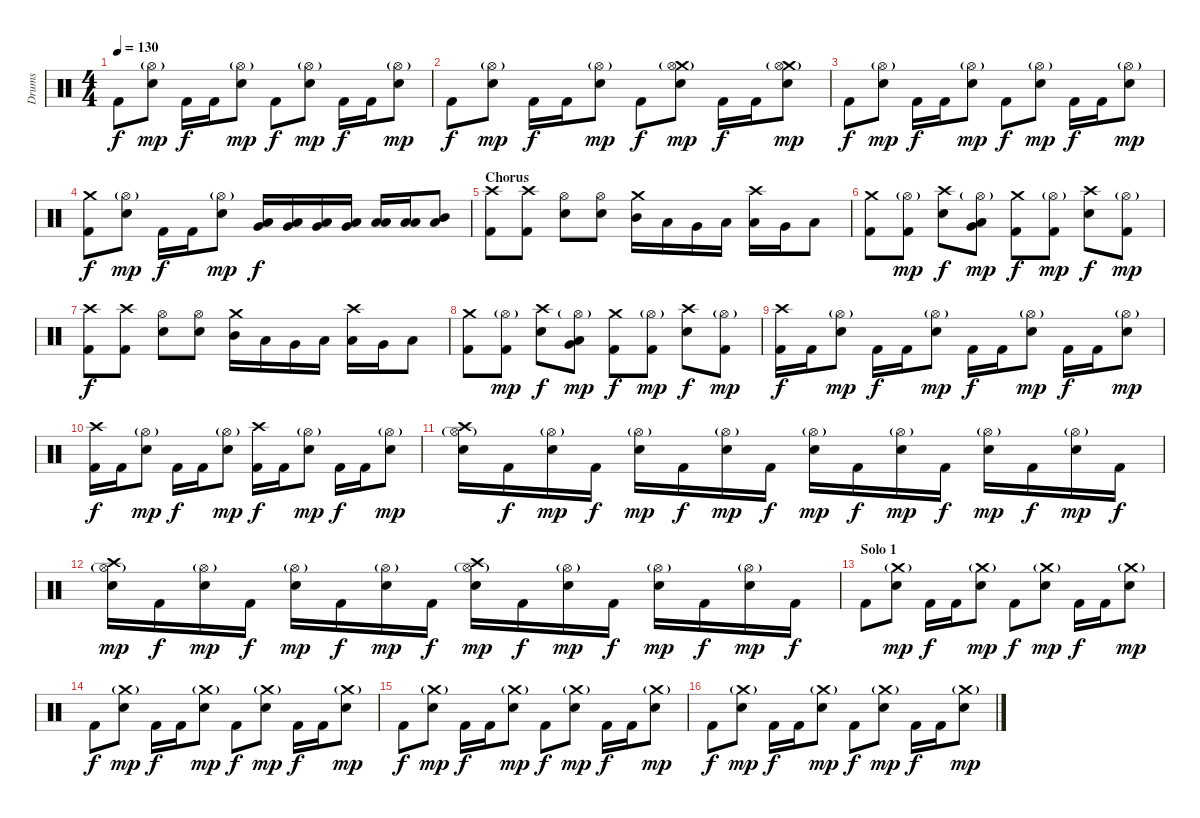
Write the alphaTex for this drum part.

\track ("Drums" "Drums") {instrument percussion}
\staff {score}
\articulation defaults
\ts (4 4)
\tempo 130
\clef neutral
\ks c "Kick (hit) 2".8{dy f}
("Hi-Hat (open)"{g} "Electric Snare (hit)").8{dy mp} "Kick (hit) 2".16{dy f} "Kick (hit) 2".16 ("Hi-Hat (open)"{g} "Electric Snare (hit)").8{dy mp} "Kick (hit) 2".8{dy f} ("Hi-Hat (open)"{g} "Electric Snare (hit)").8{dy mp} "Kick (hit) 2".16{dy f} "Kick (hit) 2".16 ("Hi-Hat (open)"{g} "Electric Snare (hit)").8{dy mp} |
"Kick (hit) 2".8{dy f} ("Hi-Hat (open)"{g} "Electric Snare (hit)").8{dy mp} "Kick (hit) 2".16{dy f} "Kick (hit) 2".16 ("Hi-Hat (open)"{g} "Electric Snare (hit)").8{dy mp} "Kick (hit) 2".8{dy f} ("Crash medium (hit)"{g} "Hi-Hat (open)"{g} "Electric Snare (hit)").8{dy mp} "Kick (hit) 2".16{dy f} "Kick (hit) 2".16 ("Crash medium (hit)"{g} "Hi-Hat (open)"{g} "Electric Snare (hit)").8{dy mp} |
"Kick (hit) 2".8{dy f} ("Hi-Hat (open)"{g} "Electric Snare (hit)").8{dy mp} "Kick (hit) 2".16{dy f} "Kick (hit) 2".16 ("Hi-Hat (open)"{g} "Electric Snare (hit)").8{dy mp} "Kick (hit) 2".8{dy f} ("Hi-Hat (open)"{g} "Electric Snare (hit)").8{dy mp} "Kick (hit) 2".16{dy f} "Kick (hit) 2".16 ("Hi-Hat (open)"{g} "Electric Snare (hit)").8{dy mp} |
("Crash medium (hit)" "Kick (hit) 2").8{dy f} ("Hi-Hat (open)"{g} "Electric Snare (hit)").8{dy mp} "Kick (hit) 2".16{dy f} "Kick (hit) 2".16 ("Hi-Hat (open)"{g} "Electric Snare (hit)").8{dy mp} ("Very Low Tom (hit)" "Low Floor Tom (hit)").16{dy f} ("Very Low Tom (hit)" "Low Floor Tom (hit)").16 ("Very Low Tom (hit)" "Low Floor Tom (hit)").16 ("Very Low Tom (hit)" "Low Floor Tom (hit)").16 ("Low Tom (hit)" "Low Floor Tom (hit)").16 ("Low Tom (hit)" "Low Floor Tom (hit)").16 ("Mid Tom (hit)" "Low Floor Tom (hit)").8 |
\section ("" "Chorus")
("Crash high (hit)" "Kick (hit) 2").8 ("Crash high (hit)" "Kick (hit) 2").8 ("Hi-Hat (open)" "Electric Snare (hit)").8 ("Hi-Hat (open)" "Electric Snare (hit)").8 ("Crash medium (hit)" "Mid Tom (hit)").16 "Low Tom (hit)".16 "Very Low Tom (hit)".16 "Low Floor Tom (hit)".16 ("Crash high (hit)" "Low Tom (hit)").16 "Very Low Tom (hit)".16 "Low Floor Tom (hit)".8 |
("Crash medium (hit)" "Kick (hit) 2").8 ("Hi-Hat (open)"{g} "Kick (hit) 2").8{dy mp} ("Crash high (hit)" "Electric Snare (hit)").8{dy f} ("Hi-Hat (open)"{g} "Low Tom (hit)" "Very Low Tom (hit)").8{dy mp} ("Crash medium (hit)" "Kick (hit) 2").8{dy f} ("Hi-Hat (open)"{g} "Kick (hit) 2").8{dy mp} ("Crash high (hit)" "Electric Snare (hit)").8{dy f} ("Hi-Hat (open)"{g} "Kick (hit) 2").8{dy mp} |
("Crash high (hit)" "Kick (hit) 2").8{dy f} ("Crash high (hit)" "Kick (hit) 2").8 ("Hi-Hat (open)" "Electric Snare (hit)").8 ("Hi-Hat (open)" "Electric Snare (hit)").8 ("Crash medium (hit)" "Mid Tom (hit)").16 "Low Tom (hit)".16 "Very Low Tom (hit)".16 "Low Floor Tom (hit)".16 ("Crash high (hit)" "Low Tom (hit)").16 "Very Low Tom (hit)".16 "Low Floor Tom (hit)".8 |
("Crash medium (hit)" "Kick (hit) 2").8 ("Hi-Hat (open)"{g} "Kick (hit) 2").8{dy mp} ("Crash high (hit)" "Electric Snare (hit)").8{dy f} ("Hi-Hat (open)"{g} "Low Tom (hit)" "Very Low Tom (hit)").8{dy mp} ("Crash medium (hit)" "Kick (hit) 2").8{dy f} ("Hi-Hat (open)"{g} "Kick (hit) 2").8{dy mp} ("Crash high (hit)" "Electric Snare (hit)").8{dy f} ("Hi-Hat (open)"{g} "Kick (hit) 2").8{dy mp} |
("Crash high (hit)" "Kick (hit) 2").16{dy f} "Kick (hit) 2".16 ("Hi-Hat (open)"{g} "Electric Snare (hit)").8{dy mp} "Kick (hit) 2".16{dy f} "Kick (hit) 2".16 ("Hi-Hat (open)"{g} "Electric Snare (hit)").8{dy mp} "Kick (hit) 2".16{dy f} "Kick (hit) 2".16 ("Hi-Hat (open)"{g} "Electric Snare (hit)").8{dy mp} "Kick (hit) 2".16{dy f} "Kick (hit) 2".16 ("Hi-Hat (open)"{g} "Electric Snare (hit)").8{dy mp} |
("Crash high (hit)" "Kick (hit) 2").16{dy f} "Kick (hit) 2".16 ("Hi-Hat (open)"{g} "Electric Snare (hit)").8{dy mp} "Kick (hit) 2".16{dy f} "Kick (hit) 2".16 ("Hi-Hat (open)"{g} "Electric Snare (hit)").8{dy mp} ("Crash high (hit)" "Kick (hit) 2").16{dy f} "Kick (hit) 2".16 ("Hi-Hat (open)"{g} "Electric Snare (hit)").8{dy mp} "Kick (hit) 2".16{dy f} "Kick (hit) 2".16 ("Hi-Hat (open)"{g} "Electric Snare (hit)").8{dy mp} |
("Hi-Hat (open)"{g} "Crash high (hit)" "Electric Snare (hit)").16 "Kick (hit) 2".16{dy f} ("Hi-Hat (open)"{g} "Electric Snare (hit)").16{dy mp} "Kick (hit) 2".16{dy f} ("Hi-Hat (open)"{g} "Electric Snare (hit)").16{dy mp} "Kick (hit) 2".16{dy f} ("Hi-Hat (open)"{g} "Electric Snare (hit)").16{dy mp} "Kick (hit) 2".16{dy f} ("Hi-Hat (open)"{g} "Electric Snare (hit)").16{dy mp} "Kick (hit) 2".16{dy f} ("Hi-Hat (open)"{g} "Electric Snare (hit)").16{dy mp} "Kick (hit) 2".16{dy f} ("Hi-Hat (open)"{g} "Electric Snare (hit)").16{dy mp} "Kick (hit) 2".16{dy f} ("Hi-Hat (open)"{g} "Electric Snare (hit)").16{dy mp} "Kick (hit) 2".16{dy f} |
("Hi-Hat (open)"{g} "Crash high (hit)" "Electric Snare (hit)").16{dy mp} "Kick (hit) 2".16{dy f} ("Hi-Hat (open)"{g} "Electric Snare (hit)").16{dy mp} "Kick (hit) 2".16{dy f} ("Hi-Hat (open)"{g} "Electric Snare (hit)").16{dy mp} "Kick (hit) 2".16{dy f} ("Hi-Hat (open)"{g} "Electric Snare (hit)").16{dy mp} "Kick (hit) 2".16{dy f} ("Hi-Hat (open)"{g} "Crash high (hit)" "Electric Snare (hit)").16{dy mp} "Kick (hit) 2".16{dy f} ("Hi-Hat (open)"{g} "Electric Snare (hit)").16{dy mp} "Kick (hit) 2".16{dy f} ("Hi-Hat (open)"{g} "Electric Snare (hit)").16{dy mp} "Kick (hit) 2".16{dy f} ("Hi-Hat (open)"{g} "Electric Snare (hit)").16{dy mp} "Kick (hit) 2".16{dy f} |
\section ("" "Solo 1")
"Kick (hit) 2".8 ("Crash medium (hit)"{g} "Electric Snare (hit)").8{dy mp} "Kick (hit) 2".16{dy f} "Kick (hit) 2".16 ("Crash medium (hit)"{g} "Electric Snare (hit)").8{dy mp} "Kick (hit) 2".8{dy f} ("Crash medium (hit)"{g} "Electric Snare (hit)").8{dy mp} "Kick (hit) 2".16{dy f} "Kick (hit) 2".16 ("Crash medium (hit)"{g} "Electric Snare (hit)").8{dy mp} |
"Kick (hit) 2".8{dy f} ("Crash medium (hit)"{g} "Electric Snare (hit)").8{dy mp} "Kick (hit) 2".16{dy f} "Kick (hit) 2".16 ("Crash medium (hit)"{g} "Electric Snare (hit)").8{dy mp} "Kick (hit) 2".8{dy f} ("Crash medium (hit)"{g} "Electric Snare (hit)").8{dy mp} "Kick (hit) 2".16{dy f} "Kick (hit) 2".16 ("Crash medium (hit)"{g} "Electric Snare (hit)").8{dy mp} |
"Kick (hit) 2".8{dy f} ("Crash medium (hit)"{g} "Electric Snare (hit)").8{dy mp} "Kick (hit) 2".16{dy f} "Kick (hit) 2".16 ("Crash medium (hit)"{g} "Electric Snare (hit)").8{dy mp} "Kick (hit) 2".8{dy f} ("Crash medium (hit)"{g} "Electric Snare (hit)").8{dy mp} "Kick (hit) 2".16{dy f} "Kick (hit) 2".16 ("Crash medium (hit)"{g} "Electric Snare (hit)").8{dy mp} |
"Kick (hit) 2".8{dy f} ("Crash medium (hit)"{g} "Electric Snare (hit)").8{dy mp} "Kick (hit) 2".16{dy f} "Kick (hit) 2".16 ("Crash medium (hit)"{g} "Electric Snare (hit)").8{dy mp} "Kick (hit) 2".8{dy f} ("Crash medium (hit)"{g} "Electric Snare (hit)").8{dy mp} "Kick (hit) 2".16{dy f} "Kick (hit) 2".16 ("Crash medium (hit)"{g} "Electric Snare (hit)").8{dy mp}
